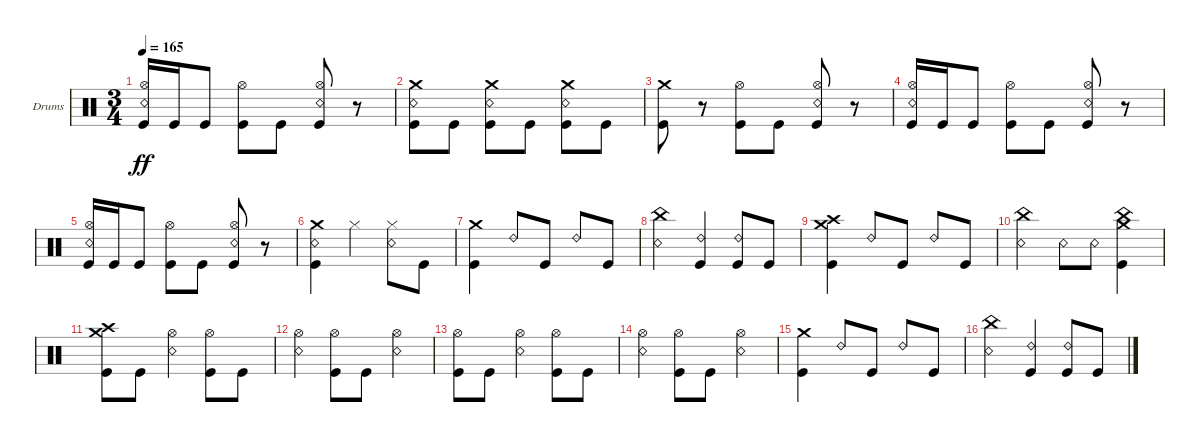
\bracketExtendMode groupsimilarinstruments
\firstSystemTrackNameOrientation horizontal
\otherSystemsTrackNameOrientation horizontal
\track ("Kaleb - Drums" "Drums") {instrument percussion}
\staff {score}
\articulation defaults
\ts (3 4)
\tempo 165
\clef neutral
\ks c
("Kick (hit)" "Hi-Hat (open)" "Snare (rim shot)").16{dy ff} "Kick (hit)".16 "Kick (hit)".8 ("Kick (hit)" "Hi-Hat (open)").8 "Kick (hit)".8 ("Kick (hit)" "Hi-Hat (open)" "Snare (rim shot)").8 r.8 |
("Kick (hit)" "Crash medium (hit)" "Snare (rim shot)").8 "Kick (hit)".8 ("Kick (hit)" "Crash medium (hit)" "Snare (rim shot)").8 "Kick (hit)".8 ("Kick (hit)" "Crash medium (hit)" "Snare (rim shot)").8 "Kick (hit)".8 |
("Kick (hit)" "Crash medium (hit)").8 r.8 ("Kick (hit)" "Hi-Hat (open)").8 "Kick (hit)".8 ("Kick (hit)" "Hi-Hat (open)" "Snare (rim shot)").8 r.8 |
("Kick (hit)" "Hi-Hat (open)" "Snare (rim shot)").16 "Kick (hit)".16 "Kick (hit)".8 ("Kick (hit)" "Hi-Hat (open)").8 "Kick (hit)".8 ("Kick (hit)" "Hi-Hat (open)" "Snare (rim shot)").8 r.8 |
("Kick (hit)" "Hi-Hat (open)" "Snare (rim shot)").16 "Kick (hit)".16 "Kick (hit)".8 ("Kick (hit)" "Hi-Hat (open)").8 "Kick (hit)".8 ("Kick (hit)" "Hi-Hat (open)" "Snare (rim shot)").8 r.8 |
("Kick (hit)" "Crash medium (hit)" "Snare (rim shot)").4 "Hi-Hat (closed)".4 ("Hi-Hat (closed)" "Snare (rim shot)").8 "Kick (hit)".8 |
("Kick (hit)" "Crash medium (hit)").4 "Ride (bell) 2".8 "Kick (hit)".8 "Ride (bell) 2".8 "Kick (hit)".8 |
("Snare (rim shot)" "China (hit)").4 ("Ride (bell) 2" "Kick (hit)").4 ("Ride (bell) 2" "Kick (hit)").8 "Kick (hit)".8 |
("Kick (hit)" "Crash medium (hit)" "Crash high (hit)").4 "Ride (bell) 2".8 "Kick (hit)".8 "Ride (bell) 2".8 "Kick (hit)".8 |
("Snare (rim shot)" "China (hit)").4 "Snare (rim shot)".8 "Snare (rim shot)".8 ("Kick (hit)" "Crash medium (hit)" "China (hit)").4 |
("Kick (hit)" "Crash medium (hit)" "Crash high (hit)").8 "Kick (hit)".8 ("Hi-Hat (open)" "Snare (rim shot)").4 ("Kick (hit)" "Hi-Hat (open)").8 "Kick (hit)".8 |
("Hi-Hat (open)" "Snare (rim shot)").4 ("Kick (hit)" "Hi-Hat (open)").8 "Kick (hit)".8 ("Hi-Hat (open)" "Snare (rim shot)").4 |
("Kick (hit)" "Hi-Hat (open)").8 "Kick (hit)".8 ("Hi-Hat (open)" "Snare (rim shot)").4 ("Kick (hit)" "Hi-Hat (open)").8 "Kick (hit)".8 |
("Hi-Hat (open)" "Snare (rim shot)").4 ("Kick (hit)" "Hi-Hat (open)").8 "Kick (hit)".8 ("Hi-Hat (open)" "Snare (rim shot)").4 |
("Kick (hit)" "Crash medium (hit)").4 "Ride (bell) 2".8 "Kick (hit)".8 "Ride (bell) 2".8 "Kick (hit)".8 |
("Snare (rim shot)" "China (hit)").4 ("Ride (bell) 2" "Kick (hit)").4 ("Ride (bell) 2" "Kick (hit)").8 "Kick (hit)".8
